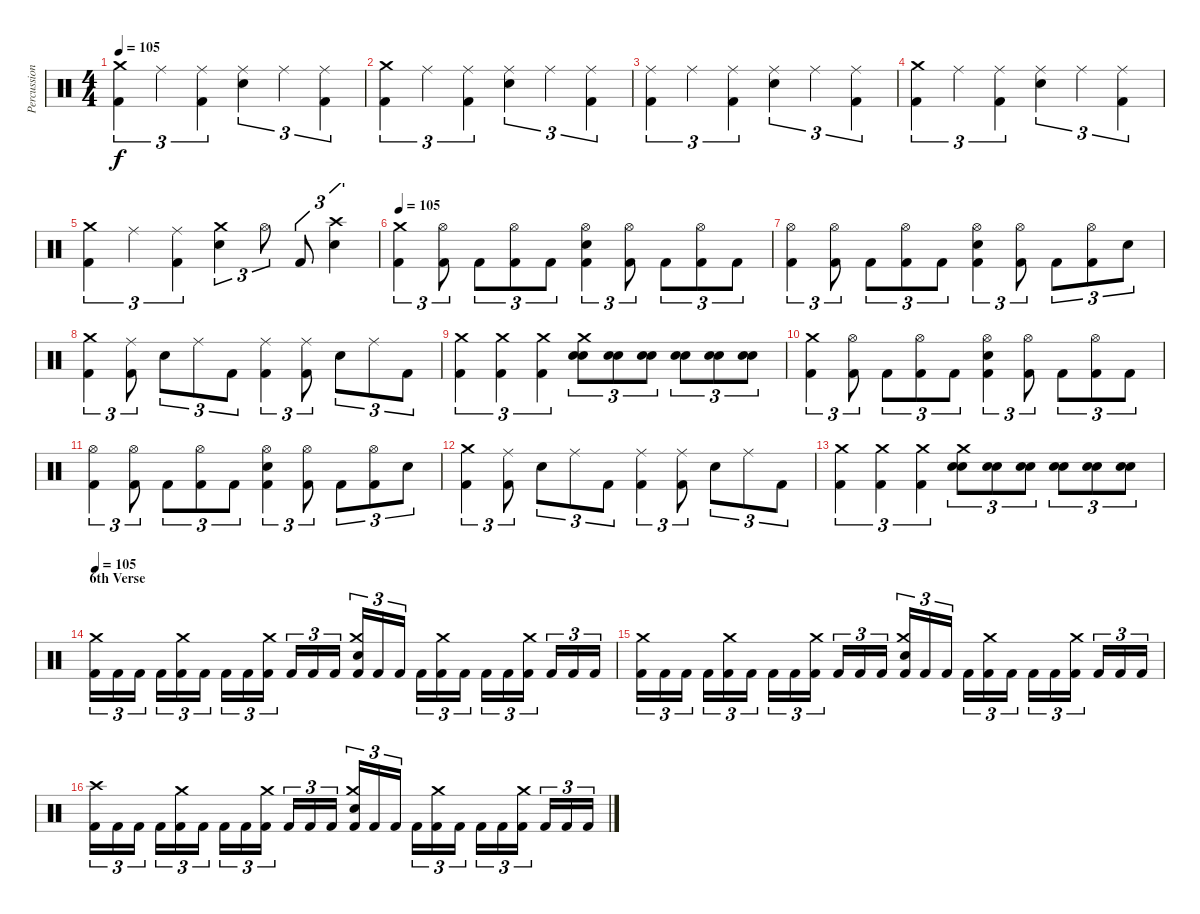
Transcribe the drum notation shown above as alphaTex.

\track ("Percussion" "Percussion") {instrument percussion}
\staff {score}
\articulation defaults
\ts (4 4)
\tempo 105
\clef neutral
\ks c
("Kick (hit) 2" "Crash medium (hit)").4{tu (3 2) dy f} "Ride (middle)".4{tu (3 2)} ("Kick (hit) 2" "Ride (middle)").4{tu (3 2)} ("Electric Snare (hit)" "Ride (middle)").4{tu (3 2)} "Ride (middle)".4{tu (3 2)} ("Kick (hit) 2" "Ride (middle)").4{tu (3 2)} |
("Kick (hit) 2" "Crash medium (hit)").4{tu (3 2)} "Ride (middle)".4{tu (3 2)} ("Kick (hit) 2" "Ride (middle)").4{tu (3 2)} ("Electric Snare (hit)" "Ride (middle)").4{tu (3 2)} "Ride (middle)".4{tu (3 2)} ("Kick (hit) 2" "Ride (middle)").4{tu (3 2)} |
("Kick (hit) 2" "Ride (middle)").4{tu (3 2)} "Ride (middle)".4{tu (3 2)} ("Kick (hit) 2" "Ride (middle)").4{tu (3 2)} ("Electric Snare (hit)" "Ride (middle)").4{tu (3 2)} "Ride (middle)".4{tu (3 2)} ("Kick (hit) 2" "Ride (middle)").4{tu (3 2)} |
("Kick (hit) 2" "Crash medium (hit)").4{tu (3 2)} "Ride (middle)".4{tu (3 2)} ("Kick (hit) 2" "Ride (middle)").4{tu (3 2)} ("Electric Snare (hit)" "Ride (middle)").4{tu (3 2)} "Ride (middle)".4{tu (3 2)} ("Kick (hit) 2" "Ride (middle)").4{tu (3 2)} |
("Kick (hit) 2" "Crash medium (hit)").4{tu (3 2)} "Ride (middle)".4{tu (3 2)} ("Kick (hit) 2" "Ride (middle)").4{tu (3 2)} ("Electric Snare (hit)" "Crash medium (hit)").4{tu (3 2)} "Hi-Hat (open)".8{tu (3 2)} "Kick (hit) 2".8{tu (3 2)} ("Electric Snare (hit)" "Crash high (hit)").4{tu (3 2)} |
\tempo 105
("Kick (hit) 2" "Crash medium (hit)").4{tu (3 2)} ("Kick (hit) 2" "Hi-Hat (open)").8{tu (3 2)} "Kick (hit) 2".8{tu (3 2)} ("Kick (hit) 2" "Hi-Hat (open)").8{tu (3 2)} "Kick (hit) 2".8{tu (3 2)} ("Kick (hit) 2" "Electric Snare (hit)" "Hi-Hat (open)").4{tu (3 2)} ("Kick (hit) 2" "Hi-Hat (open)").8{tu (3 2)} "Kick (hit) 2".8{tu (3 2)} ("Kick (hit) 2" "Hi-Hat (open)").8{tu (3 2)} "Kick (hit) 2".8{tu (3 2)} |
("Kick (hit) 2" "Hi-Hat (open)").4{tu (3 2)} ("Kick (hit) 2" "Hi-Hat (open)").8{tu (3 2)} "Kick (hit) 2".8{tu (3 2)} ("Kick (hit) 2" "Hi-Hat (open)").8{tu (3 2)} "Kick (hit) 2".8{tu (3 2)} ("Kick (hit) 2" "Electric Snare (hit)" "Hi-Hat (open)").4{tu (3 2)} ("Kick (hit) 2" "Hi-Hat (open)").8{tu (3 2)} "Kick (hit) 2".8{tu (3 2)} ("Kick (hit) 2" "Hi-Hat (open)").8{tu (3 2)} "Electric Snare (hit)".8{tu (3 2)} |
("Kick (hit) 2" "Crash medium (hit)").4{tu (3 2)} ("Kick (hit) 2" "Ride (middle)").8{tu (3 2)} "Electric Snare (hit)".8{tu (3 2)} "Ride (middle)".8{tu (3 2)} "Kick (hit) 2".8{tu (3 2)} ("Kick (hit) 2" "Ride (middle)").4{tu (3 2)} ("Kick (hit) 2" "Ride (middle)").8{tu (3 2)} "Electric Snare (hit)".8{tu (3 2)} "Ride (middle)".8{tu (3 2)} "Kick (hit) 2".8{tu (3 2)} |
("Kick (hit) 2" "Crash medium (hit)").4{tu (3 2)} ("Kick (hit) 2" "Crash medium (hit)").4{tu (3 2)} ("Kick (hit) 2" "Crash medium (hit)").4{tu (3 2)} ("Electric Snare (hit)" "Electric Snare (hit)" "Crash medium (hit)").8{tu (3 2)} ("Electric Snare (hit)" "Electric Snare (hit)").8{tu (3 2)} ("Electric Snare (hit)" "Electric Snare (hit)").8{tu (3 2)} ("Electric Snare (hit)" "Electric Snare (hit)").8{tu (3 2)} ("Electric Snare (hit)" "Electric Snare (hit)").8{tu (3 2)} ("Electric Snare (hit)" "Electric Snare (hit)").8{tu (3 2)} |
("Kick (hit) 2" "Crash medium (hit)").4{tu (3 2)} ("Kick (hit) 2" "Hi-Hat (open)").8{tu (3 2)} "Kick (hit) 2".8{tu (3 2)} ("Kick (hit) 2" "Hi-Hat (open)").8{tu (3 2)} "Kick (hit) 2".8{tu (3 2)} ("Kick (hit) 2" "Electric Snare (hit)" "Hi-Hat (open)").4{tu (3 2)} ("Kick (hit) 2" "Hi-Hat (open)").8{tu (3 2)} "Kick (hit) 2".8{tu (3 2)} ("Kick (hit) 2" "Hi-Hat (open)").8{tu (3 2)} "Kick (hit) 2".8{tu (3 2)} |
("Kick (hit) 2" "Hi-Hat (open)").4{tu (3 2)} ("Kick (hit) 2" "Hi-Hat (open)").8{tu (3 2)} "Kick (hit) 2".8{tu (3 2)} ("Kick (hit) 2" "Hi-Hat (open)").8{tu (3 2)} "Kick (hit) 2".8{tu (3 2)} ("Kick (hit) 2" "Electric Snare (hit)" "Hi-Hat (open)").4{tu (3 2)} ("Kick (hit) 2" "Hi-Hat (open)").8{tu (3 2)} "Kick (hit) 2".8{tu (3 2)} ("Kick (hit) 2" "Hi-Hat (open)").8{tu (3 2)} "Electric Snare (hit)".8{tu (3 2)} |
("Kick (hit) 2" "Crash medium (hit)").4{tu (3 2)} ("Kick (hit) 2" "Ride (middle)").8{tu (3 2)} "Electric Snare (hit)".8{tu (3 2)} "Ride (middle)".8{tu (3 2)} "Kick (hit) 2".8{tu (3 2)} ("Kick (hit) 2" "Ride (middle)").4{tu (3 2)} ("Kick (hit) 2" "Ride (middle)").8{tu (3 2)} "Electric Snare (hit)".8{tu (3 2)} "Ride (middle)".8{tu (3 2)} "Kick (hit) 2".8{tu (3 2)} |
("Kick (hit) 2" "Crash medium (hit)").4{tu (3 2)} ("Kick (hit) 2" "Crash medium (hit)").4{tu (3 2)} ("Kick (hit) 2" "Crash medium (hit)").4{tu (3 2)} ("Electric Snare (hit)" "Electric Snare (hit)" "Crash medium (hit)").8{tu (3 2)} ("Electric Snare (hit)" "Electric Snare (hit)").8{tu (3 2)} ("Electric Snare (hit)" "Electric Snare (hit)").8{tu (3 2)} ("Electric Snare (hit)" "Electric Snare (hit)").8{tu (3 2)} ("Electric Snare (hit)" "Electric Snare (hit)").8{tu (3 2)} ("Electric Snare (hit)" "Electric Snare (hit)").8{tu (3 2)} |
\section ("" "6th Verse")
\tempo 105
("Kick (hit) 2" "Crash medium (hit)").16{tu (3 2)} "Kick (hit) 2".16{tu (3 2)} "Kick (hit) 2".16{tu (3 2)} "Kick (hit) 2".16{tu (3 2)} ("Kick (hit) 2" "Crash medium (hit)").16{tu (3 2)} "Kick (hit) 2".16{tu (3 2)} "Kick (hit) 2".16{tu (3 2)} "Kick (hit) 2".16{tu (3 2)} ("Kick (hit) 2" "Crash medium (hit)").16{tu (3 2)} "Kick (hit) 2".16{tu (3 2)} "Kick (hit) 2".16{tu (3 2)} "Kick (hit) 2".16{tu (3 2)} ("Kick (hit) 2" "Electric Snare (hit)" "Crash medium (hit)").16{tu (3 2)} "Kick (hit) 2".16{tu (3 2)} "Kick (hit) 2".16{tu (3 2)} "Kick (hit) 2".16{tu (3 2)} ("Kick (hit) 2" "Crash medium (hit)").16{tu (3 2)} "Kick (hit) 2".16{tu (3 2)} "Kick (hit) 2".16{tu (3 2)} "Kick (hit) 2".16{tu (3 2)} ("Kick (hit) 2" "Crash medium (hit)").16{tu (3 2)} "Kick (hit) 2".16{tu (3 2)} "Kick (hit) 2".16{tu (3 2)} "Kick (hit) 2".16{tu (3 2)} |
("Kick (hit) 2" "Crash medium (hit)").16{tu (3 2)} "Kick (hit) 2".16{tu (3 2)} "Kick (hit) 2".16{tu (3 2)} "Kick (hit) 2".16{tu (3 2)} ("Kick (hit) 2" "Crash medium (hit)").16{tu (3 2)} "Kick (hit) 2".16{tu (3 2)} "Kick (hit) 2".16{tu (3 2)} "Kick (hit) 2".16{tu (3 2)} ("Kick (hit) 2" "Crash medium (hit)").16{tu (3 2)} "Kick (hit) 2".16{tu (3 2)} "Kick (hit) 2".16{tu (3 2)} "Kick (hit) 2".16{tu (3 2)} ("Kick (hit) 2" "Electric Snare (hit)" "Crash medium (hit)").16{tu (3 2)} "Kick (hit) 2".16{tu (3 2)} "Kick (hit) 2".16{tu (3 2)} "Kick (hit) 2".16{tu (3 2)} ("Kick (hit) 2" "Crash medium (hit)").16{tu (3 2)} "Kick (hit) 2".16{tu (3 2)} "Kick (hit) 2".16{tu (3 2)} "Kick (hit) 2".16{tu (3 2)} ("Kick (hit) 2" "Crash medium (hit)").16{tu (3 2)} "Kick (hit) 2".16{tu (3 2)} "Kick (hit) 2".16{tu (3 2)} "Kick (hit) 2".16{tu (3 2)} |
("Kick (hit) 2" "Crash high (hit)").16{tu (3 2)} "Kick (hit) 2".16{tu (3 2)} "Kick (hit) 2".16{tu (3 2)} "Kick (hit) 2".16{tu (3 2)} ("Kick (hit) 2" "Crash medium (hit)").16{tu (3 2)} "Kick (hit) 2".16{tu (3 2)} "Kick (hit) 2".16{tu (3 2)} "Kick (hit) 2".16{tu (3 2)} ("Kick (hit) 2" "Crash medium (hit)").16{tu (3 2)} "Kick (hit) 2".16{tu (3 2)} "Kick (hit) 2".16{tu (3 2)} "Kick (hit) 2".16{tu (3 2)} ("Kick (hit) 2" "Electric Snare (hit)" "Crash medium (hit)").16{tu (3 2)} "Kick (hit) 2".16{tu (3 2)} "Kick (hit) 2".16{tu (3 2)} "Kick (hit) 2".16{tu (3 2)} ("Kick (hit) 2" "Crash medium (hit)").16{tu (3 2)} "Kick (hit) 2".16{tu (3 2)} "Kick (hit) 2".16{tu (3 2)} "Kick (hit) 2".16{tu (3 2)} ("Kick (hit) 2" "Crash medium (hit)").16{tu (3 2)} "Kick (hit) 2".16{tu (3 2)} "Kick (hit) 2".16{tu (3 2)} "Kick (hit) 2".16{tu (3 2)}
